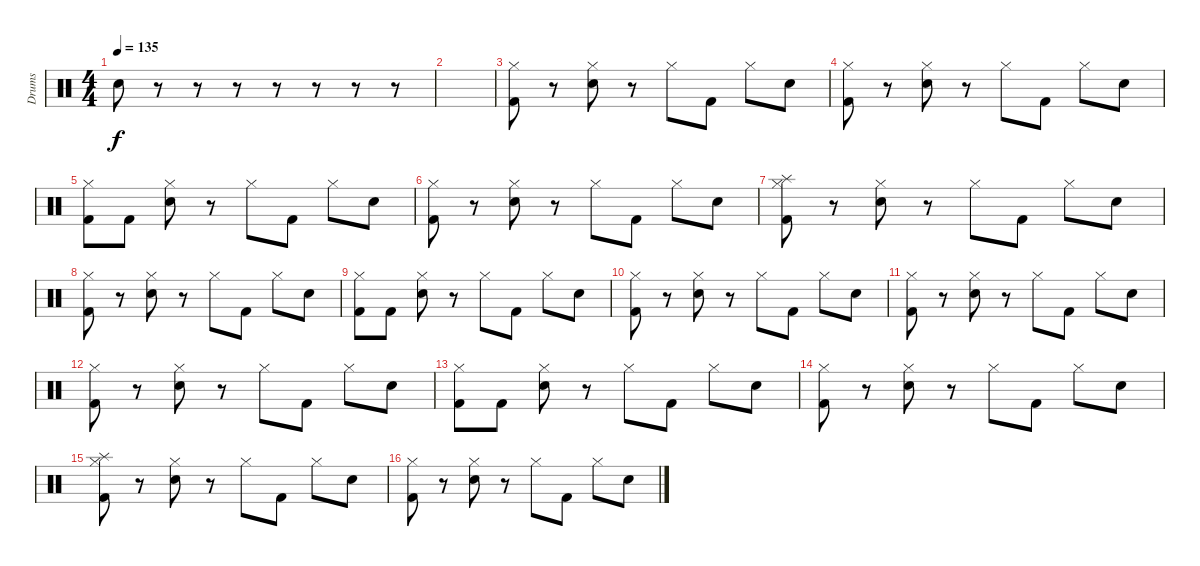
\track ("Drums" "Drums") {instrument percussion}
\staff {score}
\articulation defaults
\ts (4 4)
\tempo 135
\clef neutral
\ks c "Snare (hit) 2".8{dy f}
r.8 r.8 r.8 r.8 r.8 r.8 r.8 |
|
("Hi-Hat (closed)" "Kick (hit) 2").8 r.8 ("Hi-Hat (closed)" "Snare (hit) 2").8 r.8 "Hi-Hat (closed)".8 "Kick (hit) 2".8 "Hi-Hat (closed)".8 "Snare (hit) 2".8 |
("Hi-Hat (closed)" "Kick (hit) 2").8 r.8 ("Hi-Hat (closed)" "Snare (hit) 2").8 r.8 "Hi-Hat (closed)".8 "Kick (hit) 2".8 "Hi-Hat (closed)".8 "Snare (hit) 2".8 |
("Hi-Hat (closed)" "Kick (hit) 2").8 "Kick (hit) 2".8 ("Hi-Hat (closed)" "Snare (hit) 2").8 r.8 "Hi-Hat (closed)".8 "Kick (hit) 2".8 "Hi-Hat (closed)".8 "Snare (hit) 2".8 |
("Hi-Hat (closed)" "Kick (hit) 2").8 r.8 ("Hi-Hat (closed)" "Snare (hit) 2").8 r.8 "Hi-Hat (closed)".8 "Kick (hit) 2".8 "Hi-Hat (closed)".8 "Snare (hit) 2".8 |
("Hi-Hat (closed)" "Splash (hit)" "Kick (hit) 2").8 r.8 ("Hi-Hat (closed)" "Snare (hit) 2").8 r.8 "Hi-Hat (closed)".8 "Kick (hit) 2".8 "Hi-Hat (closed)".8 "Snare (hit) 2".8 |
("Hi-Hat (closed)" "Kick (hit) 2").8 r.8 ("Hi-Hat (closed)" "Snare (hit) 2").8 r.8 "Hi-Hat (closed)".8 "Kick (hit) 2".8 "Hi-Hat (closed)".8 "Snare (hit) 2".8 |
("Hi-Hat (closed)" "Kick (hit) 2").8 "Kick (hit) 2".8 ("Hi-Hat (closed)" "Snare (hit) 2").8 r.8 "Hi-Hat (closed)".8 "Kick (hit) 2".8 "Hi-Hat (closed)".8 "Snare (hit) 2".8 |
("Hi-Hat (closed)" "Kick (hit) 2").8 r.8 ("Hi-Hat (closed)" "Snare (hit) 2").8 r.8 "Hi-Hat (closed)".8 "Kick (hit) 2".8 "Hi-Hat (closed)".8 "Snare (hit) 2".8 |
("Hi-Hat (closed)" "Kick (hit) 2").8 r.8 ("Hi-Hat (closed)" "Snare (hit) 2").8 r.8 "Hi-Hat (closed)".8 "Kick (hit) 2".8 "Hi-Hat (closed)".8 "Snare (hit) 2".8 |
("Hi-Hat (closed)" "Kick (hit) 2").8 r.8 ("Hi-Hat (closed)" "Snare (hit) 2").8 r.8 "Hi-Hat (closed)".8 "Kick (hit) 2".8 "Hi-Hat (closed)".8 "Snare (hit) 2".8 |
("Hi-Hat (closed)" "Kick (hit) 2").8 "Kick (hit) 2".8 ("Hi-Hat (closed)" "Snare (hit) 2").8 r.8 "Hi-Hat (closed)".8 "Kick (hit) 2".8 "Hi-Hat (closed)".8 "Snare (hit) 2".8 |
("Hi-Hat (closed)" "Kick (hit) 2").8 r.8 ("Hi-Hat (closed)" "Snare (hit) 2").8 r.8 "Hi-Hat (closed)".8 "Kick (hit) 2".8 "Hi-Hat (closed)".8 "Snare (hit) 2".8 |
("Hi-Hat (closed)" "Splash (hit)" "Kick (hit) 2").8 r.8 ("Hi-Hat (closed)" "Snare (hit) 2").8 r.8 "Hi-Hat (closed)".8 "Kick (hit) 2".8 "Hi-Hat (closed)".8 "Snare (hit) 2".8 |
("Hi-Hat (closed)" "Kick (hit) 2").8 r.8 ("Hi-Hat (closed)" "Snare (hit) 2").8 r.8 "Hi-Hat (closed)".8 "Kick (hit) 2".8 "Hi-Hat (closed)".8 "Snare (hit) 2".8
